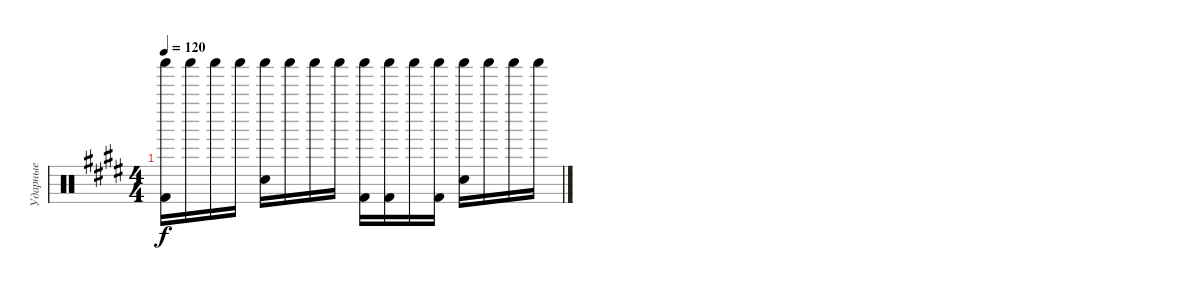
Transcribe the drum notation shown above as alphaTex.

\track ("Ударные" "Ударные") {instrument percussion}
\staff {score}
\articulation defaults
\ts (4 4)
\tempo 120
\clef neutral
\ks e
("Shaker (hit)" "Kick (hit) 2").16{dy f} "Shaker (hit)".16 "Shaker (hit)".16 "Shaker (hit)".16 ("Shaker (hit)" "Snare (hit) 2").16 "Shaker (hit)".16 "Shaker (hit)".16 "Shaker (hit)".16 ("Shaker (hit)" "Kick (hit) 2").16 ("Shaker (hit)" "Kick (hit) 2").16 "Shaker (hit)".16 ("Shaker (hit)" "Kick (hit) 2").16 ("Shaker (hit)" "Snare (hit) 2").16 "Shaker (hit)".16 "Shaker (hit)".16 "Shaker (hit)".16
